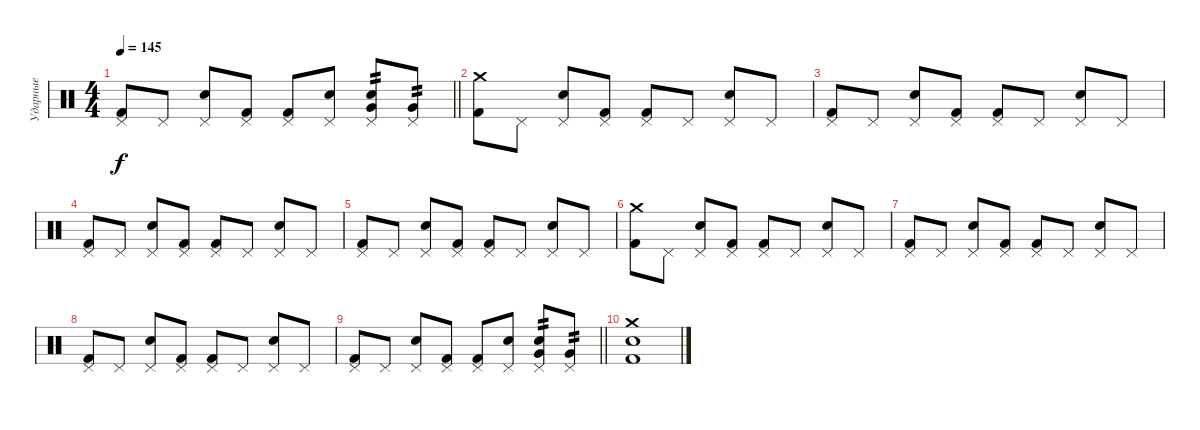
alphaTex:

\track ("Ударные" "Ударные") {instrument percussion}
\staff {score}
\articulation defaults
\ts (4 4)
\tempo 145
\clef neutral
\barLineRight lightlight
\ks c
("Pedal Hi-Hat (hit)" "Kick (hit) 2").8{dy f} "Pedal Hi-Hat (hit)".8 ("Pedal Hi-Hat (hit)" "Electric Snare (hit)").8 ("Pedal Hi-Hat (hit)" "Kick (hit) 2").8 ("Pedal Hi-Hat (hit)" "Kick (hit) 2").8 ("Pedal Hi-Hat (hit)" "Electric Snare (hit)").8 ("Pedal Hi-Hat (hit)" "Very Low Tom (hit)" "Electric Snare (hit)").8{tp 2} ("Pedal Hi-Hat (hit)" "Very Low Tom (hit)").8{tp 2} |
("Crash medium (hit)" "Kick (hit) 2").8 "Pedal Hi-Hat (hit)".8 ("Pedal Hi-Hat (hit)" "Electric Snare (hit)").8 ("Pedal Hi-Hat (hit)" "Kick (hit) 2").8 ("Pedal Hi-Hat (hit)" "Kick (hit) 2").8 "Pedal Hi-Hat (hit)".8 ("Pedal Hi-Hat (hit)" "Electric Snare (hit)").8 "Pedal Hi-Hat (hit)".8 |
("Pedal Hi-Hat (hit)" "Kick (hit) 2").8 "Pedal Hi-Hat (hit)".8 ("Pedal Hi-Hat (hit)" "Electric Snare (hit)").8 ("Pedal Hi-Hat (hit)" "Kick (hit) 2").8 ("Pedal Hi-Hat (hit)" "Kick (hit) 2").8 "Pedal Hi-Hat (hit)".8 ("Pedal Hi-Hat (hit)" "Electric Snare (hit)").8 "Pedal Hi-Hat (hit)".8 |
("Pedal Hi-Hat (hit)" "Kick (hit) 2").8 "Pedal Hi-Hat (hit)".8 ("Pedal Hi-Hat (hit)" "Electric Snare (hit)").8 ("Pedal Hi-Hat (hit)" "Kick (hit) 2").8 ("Pedal Hi-Hat (hit)" "Kick (hit) 2").8 "Pedal Hi-Hat (hit)".8 ("Pedal Hi-Hat (hit)" "Electric Snare (hit)").8 "Pedal Hi-Hat (hit)".8 |
("Pedal Hi-Hat (hit)" "Kick (hit) 2").8 "Pedal Hi-Hat (hit)".8 ("Pedal Hi-Hat (hit)" "Electric Snare (hit)").8 ("Pedal Hi-Hat (hit)" "Kick (hit) 2").8 ("Pedal Hi-Hat (hit)" "Kick (hit) 2").8 "Pedal Hi-Hat (hit)".8 ("Pedal Hi-Hat (hit)" "Electric Snare (hit)").8 "Pedal Hi-Hat (hit)".8 |
("Crash medium (hit)" "Kick (hit) 2").8 "Pedal Hi-Hat (hit)".8 ("Pedal Hi-Hat (hit)" "Electric Snare (hit)").8 ("Pedal Hi-Hat (hit)" "Kick (hit) 2").8 ("Pedal Hi-Hat (hit)" "Kick (hit) 2").8 "Pedal Hi-Hat (hit)".8 ("Pedal Hi-Hat (hit)" "Electric Snare (hit)").8 "Pedal Hi-Hat (hit)".8 |
("Pedal Hi-Hat (hit)" "Kick (hit) 2").8 "Pedal Hi-Hat (hit)".8 ("Pedal Hi-Hat (hit)" "Electric Snare (hit)").8 ("Pedal Hi-Hat (hit)" "Kick (hit) 2").8 ("Pedal Hi-Hat (hit)" "Kick (hit) 2").8 "Pedal Hi-Hat (hit)".8 ("Pedal Hi-Hat (hit)" "Electric Snare (hit)").8 "Pedal Hi-Hat (hit)".8 |
("Pedal Hi-Hat (hit)" "Kick (hit) 2").8 "Pedal Hi-Hat (hit)".8 ("Pedal Hi-Hat (hit)" "Electric Snare (hit)").8 ("Pedal Hi-Hat (hit)" "Kick (hit) 2").8 ("Pedal Hi-Hat (hit)" "Kick (hit) 2").8 "Pedal Hi-Hat (hit)".8 ("Pedal Hi-Hat (hit)" "Electric Snare (hit)").8 "Pedal Hi-Hat (hit)".8 |
\barLineRight lightlight
("Pedal Hi-Hat (hit)" "Kick (hit) 2").8 "Pedal Hi-Hat (hit)".8 ("Pedal Hi-Hat (hit)" "Electric Snare (hit)").8 ("Pedal Hi-Hat (hit)" "Kick (hit) 2").8 ("Pedal Hi-Hat (hit)" "Kick (hit) 2").8 ("Pedal Hi-Hat (hit)" "Electric Snare (hit)").8 ("Pedal Hi-Hat (hit)" "Very Low Tom (hit)" "Electric Snare (hit)").8{tp 2} ("Pedal Hi-Hat (hit)" "Very Low Tom (hit)").8{tp 2} |
("Crash medium (hit)" "Electric Snare (hit)" "Kick (hit) 2").1
